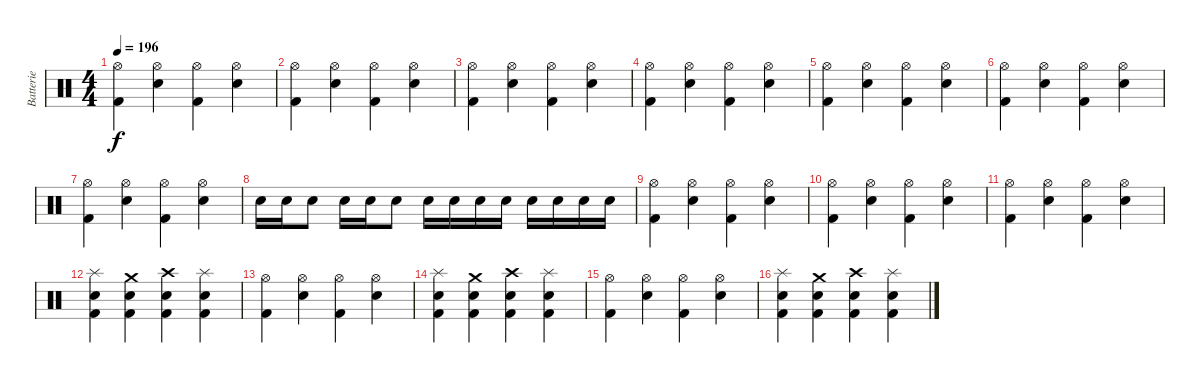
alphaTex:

\track ("Batterie" "Batterie") {instrument percussion}
\staff {score}
\articulation defaults
\ts (4 4)
\tempo 196
\clef neutral
\ks c
("Hi-Hat (open)" "Kick (hit) 2").4{dy f} ("Hi-Hat (open)" "Electric Snare (hit)").4 ("Hi-Hat (open)" "Kick (hit) 2").4 ("Hi-Hat (open)" "Electric Snare (hit)").4 |
("Hi-Hat (open)" "Kick (hit) 2").4 ("Hi-Hat (open)" "Electric Snare (hit)").4 ("Hi-Hat (open)" "Kick (hit) 2").4 ("Hi-Hat (open)" "Electric Snare (hit)").4 |
("Hi-Hat (open)" "Kick (hit) 2").4 ("Hi-Hat (open)" "Electric Snare (hit)").4 ("Hi-Hat (open)" "Kick (hit) 2").4 ("Hi-Hat (open)" "Electric Snare (hit)").4 |
("Hi-Hat (open)" "Kick (hit) 2").4 ("Hi-Hat (open)" "Electric Snare (hit)").4 ("Hi-Hat (open)" "Kick (hit) 2").4 ("Hi-Hat (open)" "Electric Snare (hit)").4 |
("Hi-Hat (open)" "Kick (hit) 2").4 ("Hi-Hat (open)" "Electric Snare (hit)").4 ("Hi-Hat (open)" "Kick (hit) 2").4 ("Hi-Hat (open)" "Electric Snare (hit)").4 |
("Hi-Hat (open)" "Kick (hit) 2").4 ("Hi-Hat (open)" "Electric Snare (hit)").4 ("Hi-Hat (open)" "Kick (hit) 2").4 ("Hi-Hat (open)" "Electric Snare (hit)").4 |
("Hi-Hat (open)" "Kick (hit) 2").4 ("Hi-Hat (open)" "Electric Snare (hit)").4 ("Hi-Hat (open)" "Kick (hit) 2").4 ("Hi-Hat (open)" "Electric Snare (hit)").4 |
"Electric Snare (hit)".16 "Electric Snare (hit)".16 "Electric Snare (hit)".8 "Electric Snare (hit)".16 "Electric Snare (hit)".16 "Electric Snare (hit)".8 "Electric Snare (hit)".16 "Electric Snare (hit)".16 "Electric Snare (hit)".16 "Electric Snare (hit)".16 "Electric Snare (hit)".16 "Electric Snare (hit)".16 "Electric Snare (hit)".16 "Electric Snare (hit)".16 |
("Hi-Hat (open)" "Kick (hit) 2").4 ("Hi-Hat (open)" "Electric Snare (hit)").4 ("Hi-Hat (open)" "Kick (hit) 2").4 ("Hi-Hat (open)" "Electric Snare (hit)").4 |
("Hi-Hat (open)" "Kick (hit) 2").4 ("Hi-Hat (open)" "Electric Snare (hit)").4 ("Hi-Hat (open)" "Kick (hit) 2").4 ("Hi-Hat (open)" "Electric Snare (hit)").4 |
("Hi-Hat (open)" "Kick (hit) 2").4 ("Hi-Hat (open)" "Electric Snare (hit)").4 ("Hi-Hat (open)" "Kick (hit) 2").4 ("Hi-Hat (open)" "Electric Snare (hit)").4 |
("Splash (hit)" "Kick (hit) 2" "Electric Snare (hit)").4 ("Crash medium (hit)" "Kick (hit) 2" "Electric Snare (hit)").4 ("Crash high (hit)" "Kick (hit) 2" "Electric Snare (hit)").4 ("Splash (hit)" "Kick (hit) 2" "Electric Snare (hit)").4 |
("Hi-Hat (open)" "Kick (hit) 2").4 ("Hi-Hat (open)" "Electric Snare (hit)").4 ("Hi-Hat (open)" "Kick (hit) 2").4 ("Hi-Hat (open)" "Electric Snare (hit)").4 |
("Splash (hit)" "Kick (hit) 2" "Electric Snare (hit)").4 ("Crash medium (hit)" "Kick (hit) 2" "Electric Snare (hit)").4 ("Crash high (hit)" "Kick (hit) 2" "Electric Snare (hit)").4 ("Splash (hit)" "Kick (hit) 2" "Electric Snare (hit)").4 |
("Hi-Hat (open)" "Kick (hit) 2").4 ("Hi-Hat (open)" "Electric Snare (hit)").4 ("Hi-Hat (open)" "Kick (hit) 2").4 ("Hi-Hat (open)" "Electric Snare (hit)").4 |
("Splash (hit)" "Kick (hit) 2" "Electric Snare (hit)").4 ("Crash medium (hit)" "Kick (hit) 2" "Electric Snare (hit)").4 ("Crash high (hit)" "Kick (hit) 2" "Electric Snare (hit)").4 ("Splash (hit)" "Kick (hit) 2" "Electric Snare (hit)").4
